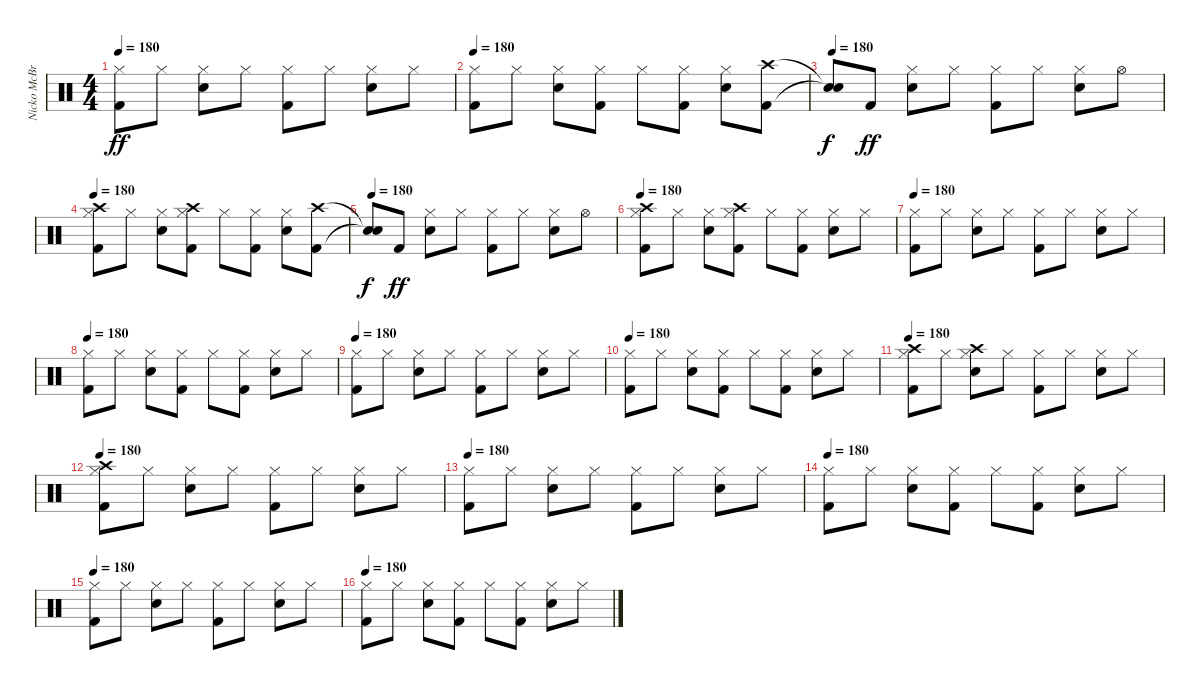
\track ("Nicko McBrain" "Nicko McBr") {instrument percussion}
\staff {score}
\articulation defaults
\ts (4 4)
\tempo 180
\clef neutral
\ks c
("Kick (hit) 2" "Hi-Hat (closed)").8{dy ff} "Hi-Hat (closed)".8 ("Snare (hit) 2" "Hi-Hat (closed)").8 "Hi-Hat (closed)".8 ("Kick (hit) 2" "Hi-Hat (closed)").8 "Hi-Hat (closed)".8 ("Snare (hit) 2" "Hi-Hat (closed)").8 "Hi-Hat (closed)".8 |
\tempo 180
("Kick (hit) 2" "Hi-Hat (closed)").8 "Hi-Hat (closed)".8 ("Snare (hit) 2" "Hi-Hat (closed)").8 ("Kick (hit) 2" "Hi-Hat (closed)").8 "Hi-Hat (closed)".8 ("Kick (hit) 2" "Hi-Hat (closed)").8 ("Snare (hit) 2" "Hi-Hat (closed)").8 ("Kick (hit) 2" "Crash high (hit)").8 |
\tempo 180
("Snare (hit)"{t} "Snare (hit)"{t}).8{dy f} "Kick (hit) 2".8{dy ff} ("Snare (hit) 2" "Hi-Hat (closed)").8 "Hi-Hat (closed)".8 ("Kick (hit) 2" "Hi-Hat (closed)").8 "Hi-Hat (closed)".8 ("Snare (hit) 2" "Hi-Hat (closed)").8 "Hi-Hat (open)".8 |
\tempo 180
("Kick (hit) 2" "Hi-Hat (closed)" "Crash high (hit)").8 "Hi-Hat (closed)".8 ("Snare (hit) 2" "Hi-Hat (closed)").8 ("Kick (hit) 2" "Hi-Hat (closed)" "Crash high (hit)").8 "Hi-Hat (closed)".8 ("Kick (hit) 2" "Hi-Hat (closed)").8 ("Snare (hit) 2" "Hi-Hat (closed)").8 ("Kick (hit) 2" "Crash high (hit)").8 |
\tempo 180
("Snare (hit)"{t} "Snare (hit)"{t}).8{dy f} "Kick (hit) 2".8{dy ff} ("Snare (hit) 2" "Hi-Hat (closed)").8 "Hi-Hat (closed)".8 ("Kick (hit) 2" "Hi-Hat (closed)").8 "Hi-Hat (closed)".8 ("Snare (hit) 2" "Hi-Hat (closed)").8 "Hi-Hat (open)".8 |
\tempo 180
("Kick (hit) 2" "Hi-Hat (closed)" "Crash high (hit)").8 "Hi-Hat (closed)".8 ("Snare (hit) 2" "Hi-Hat (closed)").8 ("Kick (hit) 2" "Hi-Hat (closed)" "Crash high (hit)").8 "Hi-Hat (closed)".8 ("Kick (hit) 2" "Hi-Hat (closed)").8 ("Snare (hit) 2" "Hi-Hat (closed)").8 "Hi-Hat (closed)".8 |
\tempo 180
("Kick (hit) 2" "Hi-Hat (closed)").8 "Hi-Hat (closed)".8 ("Snare (hit) 2" "Hi-Hat (closed)").8 "Hi-Hat (closed)".8 ("Kick (hit) 2" "Hi-Hat (closed)").8 "Hi-Hat (closed)".8 ("Snare (hit) 2" "Hi-Hat (closed)").8 "Hi-Hat (closed)".8 |
\tempo 180
("Kick (hit) 2" "Hi-Hat (closed)").8 "Hi-Hat (closed)".8 ("Snare (hit) 2" "Hi-Hat (closed)").8 ("Kick (hit) 2" "Hi-Hat (closed)").8 "Hi-Hat (closed)".8 ("Kick (hit) 2" "Hi-Hat (closed)").8 ("Snare (hit) 2" "Hi-Hat (closed)").8 "Hi-Hat (closed)".8 |
\tempo 180
("Kick (hit) 2" "Hi-Hat (closed)").8 "Hi-Hat (closed)".8 ("Snare (hit) 2" "Hi-Hat (closed)").8 "Hi-Hat (closed)".8 ("Kick (hit) 2" "Hi-Hat (closed)").8 "Hi-Hat (closed)".8 ("Snare (hit) 2" "Hi-Hat (closed)").8 "Hi-Hat (closed)".8 |
\tempo 180
("Kick (hit) 2" "Hi-Hat (closed)").8 "Hi-Hat (closed)".8 ("Snare (hit) 2" "Hi-Hat (closed)").8 ("Kick (hit) 2" "Hi-Hat (closed)").8 "Hi-Hat (closed)".8 ("Kick (hit) 2" "Hi-Hat (closed)").8 ("Snare (hit) 2" "Hi-Hat (closed)").8 "Hi-Hat (closed)".8 |
\tempo 180
("Kick (hit) 2" "Hi-Hat (closed)" "Crash high (hit)").8 "Hi-Hat (closed)".8 ("Snare (hit) 2" "Hi-Hat (closed)" "Crash high (hit)").8 "Hi-Hat (closed)".8 ("Kick (hit) 2" "Hi-Hat (closed)").8 "Hi-Hat (closed)".8 ("Snare (hit) 2" "Hi-Hat (closed)").8 "Hi-Hat (closed)".8 |
\tempo 180
("Kick (hit) 2" "Hi-Hat (closed)" "Crash high (hit)").8 "Hi-Hat (closed)".8 ("Snare (hit) 2" "Hi-Hat (closed)").8 "Hi-Hat (closed)".8 ("Kick (hit) 2" "Hi-Hat (closed)").8 "Hi-Hat (closed)".8 ("Snare (hit) 2" "Hi-Hat (closed)").8 "Hi-Hat (closed)".8 |
\tempo 180
("Kick (hit) 2" "Hi-Hat (closed)").8 "Hi-Hat (closed)".8 ("Snare (hit) 2" "Hi-Hat (closed)").8 "Hi-Hat (closed)".8 ("Kick (hit) 2" "Hi-Hat (closed)").8 "Hi-Hat (closed)".8 ("Snare (hit) 2" "Hi-Hat (closed)").8 "Hi-Hat (closed)".8 |
\tempo 180
("Kick (hit) 2" "Hi-Hat (closed)").8 "Hi-Hat (closed)".8 ("Snare (hit) 2" "Hi-Hat (closed)").8 ("Kick (hit) 2" "Hi-Hat (closed)").8 "Hi-Hat (closed)".8 ("Kick (hit) 2" "Hi-Hat (closed)").8 ("Snare (hit) 2" "Hi-Hat (closed)").8 "Hi-Hat (closed)".8 |
\tempo 180
("Kick (hit) 2" "Hi-Hat (closed)").8 "Hi-Hat (closed)".8 ("Snare (hit) 2" "Hi-Hat (closed)").8 "Hi-Hat (closed)".8 ("Kick (hit) 2" "Hi-Hat (closed)").8 "Hi-Hat (closed)".8 ("Snare (hit) 2" "Hi-Hat (closed)").8 "Hi-Hat (closed)".8 |
\tempo 180
("Kick (hit) 2" "Hi-Hat (closed)").8 "Hi-Hat (closed)".8 ("Snare (hit) 2" "Hi-Hat (closed)").8 ("Kick (hit) 2" "Hi-Hat (closed)").8 "Hi-Hat (closed)".8 ("Kick (hit) 2" "Hi-Hat (closed)").8 ("Snare (hit) 2" "Hi-Hat (closed)").8 "Hi-Hat (closed)".8
